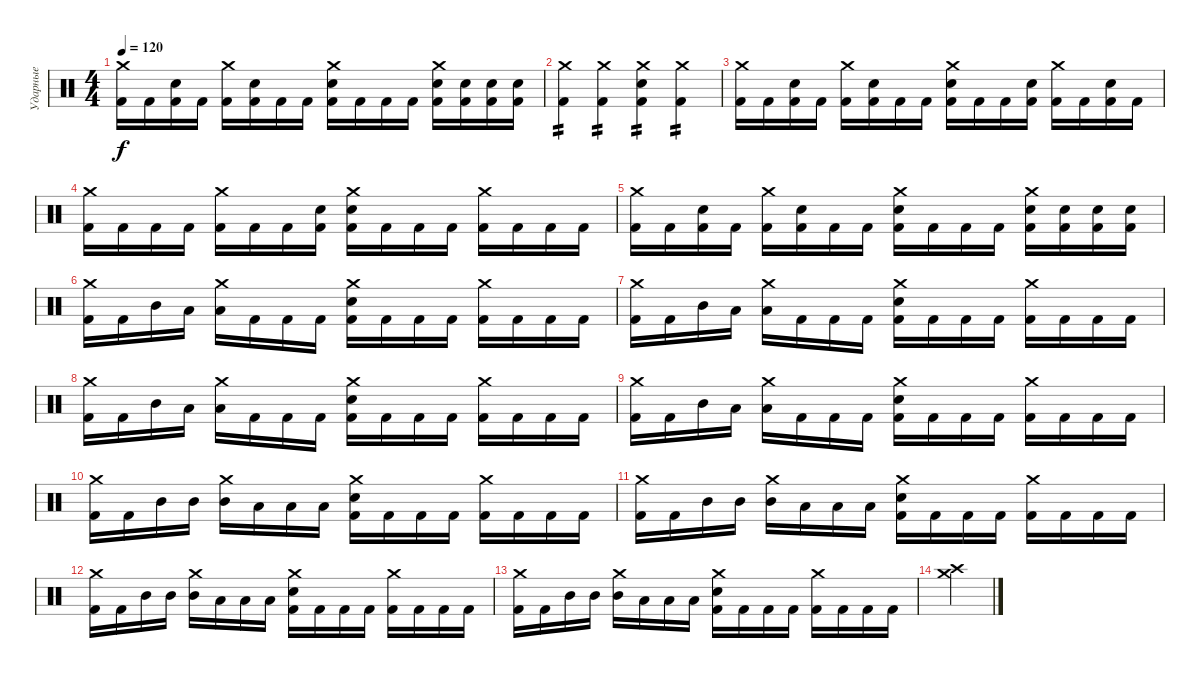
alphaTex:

\track ("Ударные" "Ударные") {instrument percussion}
\staff {score}
\articulation defaults
\ts (4 4)
\tempo 120
\clef neutral
\ks c
("Crash medium (hit)" "Kick (hit) 2").16{dy f} "Kick (hit) 2".16 ("Electric Snare (hit)" "Kick (hit) 2").16 "Kick (hit) 2".16 ("Crash medium (hit)" "Kick (hit) 2").16 ("Electric Snare (hit)" "Kick (hit) 2").16 "Kick (hit) 2".16 "Kick (hit) 2".16 ("Crash medium (hit)" "Electric Snare (hit)" "Kick (hit) 2").16 "Kick (hit) 2".16 "Kick (hit) 2".16 "Kick (hit) 2".16 ("Crash medium (hit)" "Electric Snare (hit)" "Kick (hit) 2").16 ("Electric Snare (hit)" "Kick (hit) 2").16 ("Electric Snare (hit)" "Kick (hit) 2").16 ("Electric Snare (hit)" "Kick (hit) 2").16 |
("Crash medium (hit)" "Kick (hit) 2").4{tp 2} ("Crash medium (hit)" "Kick (hit) 2").4{tp 2} ("Crash medium (hit)" "Electric Snare (hit)" "Kick (hit) 2").4{tp 2} ("Crash medium (hit)" "Kick (hit) 2").4{tp 2} |
("Crash medium (hit)" "Kick (hit) 2").16 "Kick (hit) 2".16 ("Electric Snare (hit)" "Kick (hit) 2").16 "Kick (hit) 2".16 ("Crash medium (hit)" "Kick (hit) 2").16 ("Electric Snare (hit)" "Kick (hit) 2").16 "Kick (hit) 2".16 "Kick (hit) 2".16 ("Crash medium (hit)" "Electric Snare (hit)" "Kick (hit) 2").16 "Kick (hit) 2".16 "Kick (hit) 2".16 ("Electric Snare (hit)" "Kick (hit) 2").16 ("Crash medium (hit)" "Kick (hit) 2").16 "Kick (hit) 2".16 ("Electric Snare (hit)" "Kick (hit) 2").16 "Kick (hit) 2".16 |
("Crash medium (hit)" "Kick (hit) 2").16 "Kick (hit) 2".16 "Kick (hit) 2".16 "Kick (hit) 2".16 ("Crash medium (hit)" "Kick (hit) 2").16 "Kick (hit) 2".16 "Kick (hit) 2".16 ("Electric Snare (hit)" "Kick (hit) 2").16 ("Crash medium (hit)" "Electric Snare (hit)" "Kick (hit) 2").16 "Kick (hit) 2".16 "Kick (hit) 2".16 "Kick (hit) 2".16 ("Crash medium (hit)" "Kick (hit) 2").16 "Kick (hit) 2".16 "Kick (hit) 2".16 "Kick (hit) 2".16 |
("Crash medium (hit)" "Kick (hit) 2").16 "Kick (hit) 2".16 ("Electric Snare (hit)" "Kick (hit) 2").16 "Kick (hit) 2".16 ("Crash medium (hit)" "Kick (hit) 2").16 ("Electric Snare (hit)" "Kick (hit) 2").16 "Kick (hit) 2".16 "Kick (hit) 2".16 ("Crash medium (hit)" "Electric Snare (hit)" "Kick (hit) 2").16 "Kick (hit) 2".16 "Kick (hit) 2".16 "Kick (hit) 2".16 ("Crash medium (hit)" "Electric Snare (hit)" "Kick (hit) 2").16 ("Electric Snare (hit)" "Kick (hit) 2").16 ("Electric Snare (hit)" "Kick (hit) 2").16 ("Electric Snare (hit)" "Kick (hit) 2").16 |
("Crash medium (hit)" "Kick (hit) 2").16 "Kick (hit) 2".16 "Mid Tom (hit)".16 "Low Tom (hit)".16 ("Crash medium (hit)" "Low Tom (hit)").16 "Kick (hit) 2".16 "Kick (hit) 2".16 "Kick (hit) 2".16 ("Crash medium (hit)" "Electric Snare (hit)" "Kick (hit) 2").16 "Kick (hit) 2".16 "Kick (hit) 2".16 "Kick (hit) 2".16 ("Crash medium (hit)" "Kick (hit) 2").16 "Kick (hit) 2".16 "Kick (hit) 2".16 "Kick (hit) 2".16 |
("Crash medium (hit)" "Kick (hit) 2").16 "Kick (hit) 2".16 "Mid Tom (hit)".16 "Low Tom (hit)".16 ("Crash medium (hit)" "Low Tom (hit)").16 "Kick (hit) 2".16 "Kick (hit) 2".16 "Kick (hit) 2".16 ("Crash medium (hit)" "Electric Snare (hit)" "Kick (hit) 2").16 "Kick (hit) 2".16 "Kick (hit) 2".16 "Kick (hit) 2".16 ("Crash medium (hit)" "Kick (hit) 2").16 "Kick (hit) 2".16 "Kick (hit) 2".16 "Kick (hit) 2".16 |
("Crash medium (hit)" "Kick (hit) 2").16 "Kick (hit) 2".16 "Mid Tom (hit)".16 "Low Tom (hit)".16 ("Crash medium (hit)" "Low Tom (hit)").16 "Kick (hit) 2".16 "Kick (hit) 2".16 "Kick (hit) 2".16 ("Crash medium (hit)" "Electric Snare (hit)" "Kick (hit) 2").16 "Kick (hit) 2".16 "Kick (hit) 2".16 "Kick (hit) 2".16 ("Crash medium (hit)" "Kick (hit) 2").16 "Kick (hit) 2".16 "Kick (hit) 2".16 "Kick (hit) 2".16 |
("Crash medium (hit)" "Kick (hit) 2").16 "Kick (hit) 2".16 "Mid Tom (hit)".16 "Low Tom (hit)".16 ("Crash medium (hit)" "Low Tom (hit)").16 "Kick (hit) 2".16 "Kick (hit) 2".16 "Kick (hit) 2".16 ("Crash medium (hit)" "Electric Snare (hit)" "Kick (hit) 2").16 "Kick (hit) 2".16 "Kick (hit) 2".16 "Kick (hit) 2".16 ("Crash medium (hit)" "Kick (hit) 2").16 "Kick (hit) 2".16 "Kick (hit) 2".16 "Kick (hit) 2".16 |
("Crash medium (hit)" "Kick (hit) 2").16 "Kick (hit) 2".16 "Mid Tom (hit)".16 "Mid Tom (hit)".16 ("Crash medium (hit)" "Mid Tom (hit)").16 "Low Tom (hit)".16 "Low Tom (hit)".16 "Low Tom (hit)".16 ("Crash medium (hit)" "Electric Snare (hit)" "Kick (hit) 2").16 "Kick (hit) 2".16 "Kick (hit) 2".16 "Kick (hit) 2".16 ("Crash medium (hit)" "Kick (hit) 2").16 "Kick (hit) 2".16 "Kick (hit) 2".16 "Kick (hit) 2".16 |
("Crash medium (hit)" "Kick (hit) 2").16 "Kick (hit) 2".16 "Mid Tom (hit)".16 "Mid Tom (hit)".16 ("Crash medium (hit)" "Mid Tom (hit)").16 "Low Tom (hit)".16 "Low Tom (hit)".16 "Low Tom (hit)".16 ("Crash medium (hit)" "Electric Snare (hit)" "Kick (hit) 2").16 "Kick (hit) 2".16 "Kick (hit) 2".16 "Kick (hit) 2".16 ("Crash medium (hit)" "Kick (hit) 2").16 "Kick (hit) 2".16 "Kick (hit) 2".16 "Kick (hit) 2".16 |
("Crash medium (hit)" "Kick (hit) 2").16 "Kick (hit) 2".16 "Mid Tom (hit)".16 "Mid Tom (hit)".16 ("Crash medium (hit)" "Mid Tom (hit)").16 "Low Tom (hit)".16 "Low Tom (hit)".16 "Low Tom (hit)".16 ("Crash medium (hit)" "Electric Snare (hit)" "Kick (hit) 2").16 "Kick (hit) 2".16 "Kick (hit) 2".16 "Kick (hit) 2".16 ("Crash medium (hit)" "Kick (hit) 2").16 "Kick (hit) 2".16 "Kick (hit) 2".16 "Kick (hit) 2".16 |
("Crash medium (hit)" "Kick (hit) 2").16 "Kick (hit) 2".16 "Mid Tom (hit)".16 "Mid Tom (hit)".16 ("Crash medium (hit)" "Mid Tom (hit)").16 "Low Tom (hit)".16 "Low Tom (hit)".16 "Low Tom (hit)".16 ("Crash medium (hit)" "Electric Snare (hit)" "Kick (hit) 2").16 "Kick (hit) 2".16 "Kick (hit) 2".16 "Kick (hit) 2".16 ("Crash medium (hit)" "Kick (hit) 2").16 "Kick (hit) 2".16 "Kick (hit) 2".16 "Kick (hit) 2".16 |
("Crash medium (hit)" "Crash high (hit)").4
